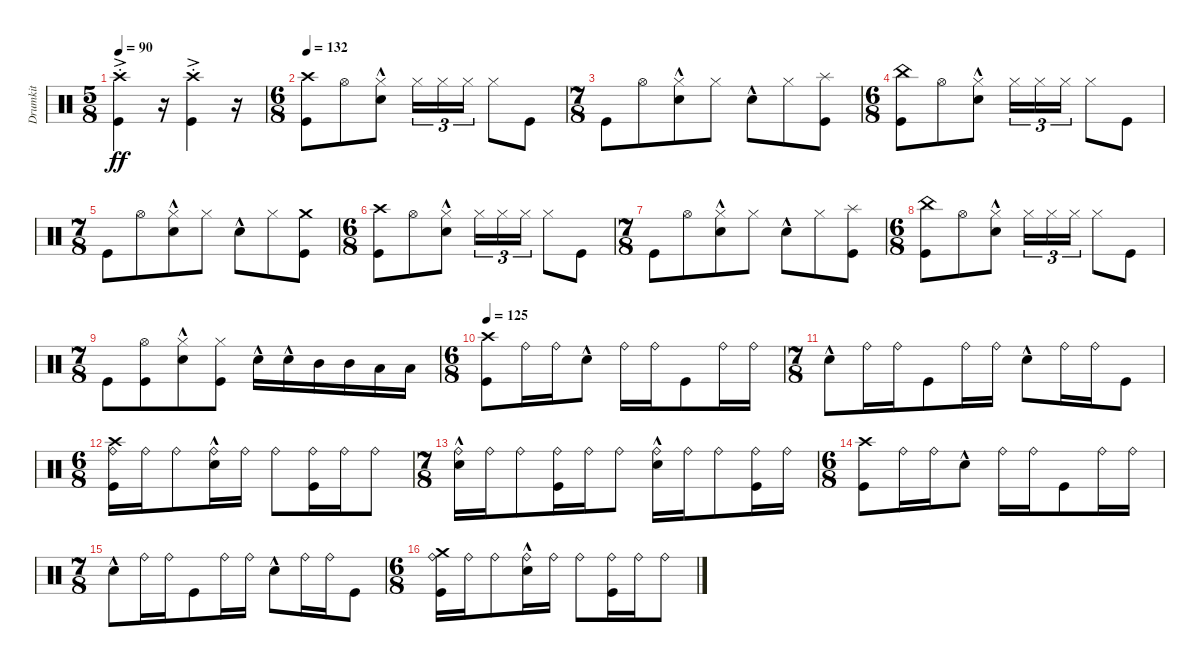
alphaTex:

\track ("Drumkit" "Drumkit") {instrument percussion}
\staff {score}
\articulation defaults
\ts (5 8)
\tempo 90
\clef neutral
\ks aminor
("Kick (hit)" "Crash high (hit)"{ac st}).4{dy ff} r.16 ("Kick (hit)" "Crash high (hit)"{ac st}).4 r.16 |
\ts (6 8)
\tempo 132
("Kick (hit)" "Crash high (hit)").8 "Hi-Hat (open)".8 ("Snare (hit) 2"{hac} "Hi-Hat (closed)").8 "Hi-Hat (closed)".16{tu (3 2)} "Hi-Hat (closed)".16{tu (3 2)} "Hi-Hat (closed)".16{tu (3 2)} "Hi-Hat (closed)".8 "Kick (hit)".8 |
\ts (7 8)
"Kick (hit)".8 "Hi-Hat (open)".8 ("Hi-Hat (closed)" "Snare (hit) 2"{hac}).8 "Hi-Hat (closed)".8 "Snare (hit) 2"{hac}.8 "Hi-Hat (closed)".8 ("Kick (hit)" "Splash (hit)").8 |
\ts (6 8)
("Kick (hit)" "China (hit)").8 "Hi-Hat (open)".8 ("Snare (hit) 2"{hac} "Hi-Hat (closed)").8 "Hi-Hat (closed)".16{tu (3 2)} "Hi-Hat (closed)".16{tu (3 2)} "Hi-Hat (closed)".16{tu (3 2)} "Hi-Hat (closed)".8 "Kick (hit)".8 |
\ts (7 8)
"Kick (hit)".8 "Hi-Hat (open)".8 ("Hi-Hat (closed)" "Snare (hit) 2"{hac}).8 "Hi-Hat (closed)".8 "Snare (hit) 2"{hac}.8 "Hi-Hat (closed)".8 ("Kick (hit)" "Crash medium (hit)").8 |
\ts (6 8)
("Kick (hit)" "Crash high (hit)").8 "Hi-Hat (open)".8 ("Snare (hit) 2"{hac} "Hi-Hat (closed)").8 "Hi-Hat (closed)".16{tu (3 2)} "Hi-Hat (closed)".16{tu (3 2)} "Hi-Hat (closed)".16{tu (3 2)} "Hi-Hat (closed)".8 "Kick (hit)".8 |
\ts (7 8)
"Kick (hit)".8 "Hi-Hat (open)".8 ("Hi-Hat (closed)" "Snare (hit) 2"{hac}).8 "Hi-Hat (closed)".8 "Snare (hit) 2"{hac}.8 "Hi-Hat (closed)".8 ("Kick (hit)" "Splash (hit)").8 |
\ts (6 8)
("Kick (hit)" "China (hit)").8 "Hi-Hat (open)".8 ("Snare (hit) 2"{hac} "Hi-Hat (closed)").8 "Hi-Hat (closed)".16{tu (3 2)} "Hi-Hat (closed)".16{tu (3 2)} "Hi-Hat (closed)".16{tu (3 2)} "Hi-Hat (closed)".8 "Kick (hit)".8 |
\ts (7 8)
"Kick (hit)".8 ("Hi-Hat (open)" "Kick (hit)").8 ("Hi-Hat (closed)" "Snare (hit) 2"{hac}).8 ("Hi-Hat (closed)" "Kick (hit)").8 "Snare (hit) 2"{hac}.16 "Snare (hit) 2"{hac}.16 "Mid Tom (hit)".16 "Mid Tom (hit)".16 "Low Tom (hit)".16 "Low Tom (hit)".16 |
\ts (6 8)
\tempo 125
("Kick (hit)" "Crash high (hit)").8 "Ride (bell)".16 "Ride (bell)".16 "Snare (hit) 2"{hac}.8 "Ride (bell)".16 "Ride (bell)".16 "Kick (hit)".8 "Ride (bell)".16 "Ride (bell)".16 |
\ts (7 8)
"Snare (hit) 2"{hac}.8 "Ride (bell)".16 "Ride (bell)".16 "Kick (hit)".8 "Ride (bell)".16 "Ride (bell)".16 "Snare (hit) 2"{hac}.8 "Ride (bell)".16 "Ride (bell)".16 "Kick (hit)".8 |
\ts (6 8)
("Kick (hit)" "Ride (bell)" "Crash high (hit)").16 "Ride (bell)".16 "Ride (bell)".8 ("Snare (hit) 2"{hac} "Ride (bell)").16 "Ride (bell)".16 "Ride (bell)".8 ("Kick (hit)" "Ride (bell)").16 "Ride (bell)".16 "Ride (bell)".8 |
\ts (7 8)
("Snare (hit) 2"{hac} "Ride (bell)").16 "Ride (bell)".16 "Ride (bell)".8 ("Kick (hit)" "Ride (bell)").16 "Ride (bell)".16 "Ride (bell)".8 ("Snare (hit) 2"{hac} "Ride (bell)").16 "Ride (bell)".16 "Ride (bell)".8 ("Kick (hit)" "Ride (bell)").16 "Ride (bell)".16 |
\ts (6 8)
("Kick (hit)" "Crash high (hit)").8 "Ride (bell)".16 "Ride (bell)".16 "Snare (hit) 2"{hac}.8 "Ride (bell)".16 "Ride (bell)".16 "Kick (hit)".8 "Ride (bell)".16 "Ride (bell)".16 |
\ts (7 8)
"Snare (hit) 2"{hac}.8 "Ride (bell)".16 "Ride (bell)".16 "Kick (hit)".8 "Ride (bell)".16 "Ride (bell)".16 "Snare (hit) 2"{hac}.8 "Ride (bell)".16 "Ride (bell)".16 "Kick (hit)".8 |
\ts (6 8)
("Kick (hit)" "Ride (bell)" "Crash medium (hit)").16 "Ride (bell)".16 "Ride (bell)".8 ("Snare (hit) 2"{hac} "Ride (bell)").16 "Ride (bell)".16 "Ride (bell)".8 ("Kick (hit)" "Ride (bell)").16 "Ride (bell)".16 "Ride (bell)".8
